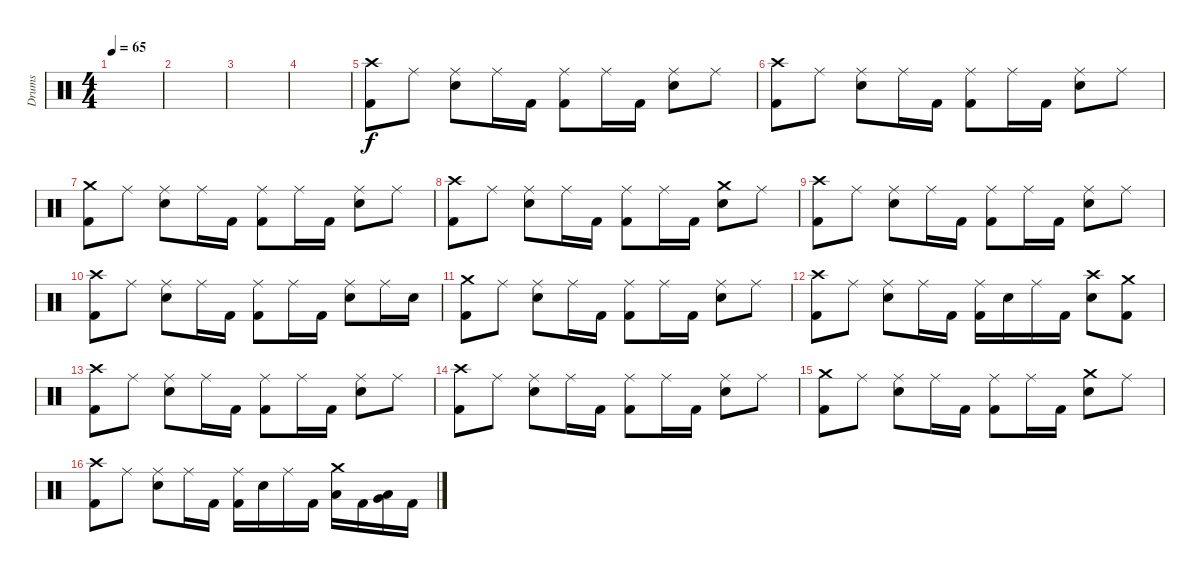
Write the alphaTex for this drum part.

\track ("Drums" "Drums") {instrument percussion}
\staff {score}
\articulation defaults
\ts (4 4)
\tempo 65
\clef neutral
\ks c
|
|
|
|
("Crash high (hit)" "Kick (hit) 2").8 "Ride (middle)".8 ("Ride (middle)" "Snare (hit) 2").8 "Ride (middle)".16 "Kick (hit) 2".16 ("Ride (middle)" "Kick (hit) 2").8 "Ride (middle)".16 "Kick (hit) 2".16 ("Ride (middle)" "Snare (hit) 2").8 "Ride (middle)".8 |
("Crash high (hit)" "Kick (hit) 2").8 "Ride (middle)".8 ("Ride (middle)" "Snare (hit) 2").8 "Ride (middle)".16 "Kick (hit) 2".16 ("Ride (middle)" "Kick (hit) 2").8 "Ride (middle)".16 "Kick (hit) 2".16 ("Ride (middle)" "Snare (hit) 2").8 "Ride (middle)".8 |
("Crash medium (hit)" "Kick (hit) 2").8 "Ride (middle)".8 ("Ride (middle)" "Snare (hit) 2").8 "Ride (middle)".16 "Kick (hit) 2".16 ("Ride (middle)" "Kick (hit) 2").8 "Ride (middle)".16 "Kick (hit) 2".16 ("Ride (middle)" "Snare (hit) 2").8 "Ride (middle)".8 |
("Crash high (hit)" "Kick (hit) 2").8 "Ride (middle)".8 ("Ride (middle)" "Snare (hit) 2").8 "Ride (middle)".16 "Kick (hit) 2".16 ("Ride (middle)" "Kick (hit) 2").8 "Ride (middle)".16 "Kick (hit) 2".16 ("Crash medium (hit)" "Snare (hit) 2").8 "Ride (middle)".8 |
("Crash high (hit)" "Kick (hit) 2").8 "Ride (middle)".8 ("Ride (middle)" "Snare (hit) 2").8 "Ride (middle)".16 "Kick (hit) 2".16 ("Ride (middle)" "Kick (hit) 2").8 "Ride (middle)".16 "Kick (hit) 2".16 ("Ride (middle)" "Snare (hit) 2").8 "Ride (middle)".8 |
("Crash high (hit)" "Kick (hit) 2").8 "Ride (middle)".8 ("Ride (middle)" "Snare (hit) 2").8 "Ride (middle)".16 "Kick (hit) 2".16 ("Ride (middle)" "Kick (hit) 2").8 "Ride (middle)".16 "Kick (hit) 2".16 ("Ride (middle)" "Snare (hit) 2").8 "Ride (middle)".16 "Snare (hit) 2".16 |
("Crash medium (hit)" "Kick (hit) 2").8 "Ride (middle)".8 ("Ride (middle)" "Snare (hit) 2").8 "Ride (middle)".16 "Kick (hit) 2".16 ("Ride (middle)" "Kick (hit) 2").8 "Ride (middle)".16 "Kick (hit) 2".16 ("Ride (middle)" "Snare (hit) 2").8 "Ride (middle)".8 |
("Crash high (hit)" "Kick (hit) 2").8 "Ride (middle)".8 ("Ride (middle)" "Snare (hit) 2").8 "Ride (middle)".16 "Kick (hit) 2".16 ("Ride (middle)" "Kick (hit) 2").16 "Snare (hit) 2".16 "Ride (middle)".16 "Kick (hit) 2".16 ("Crash high (hit)" "Snare (hit) 2").8 ("Crash medium (hit)" "Kick (hit) 2").8 |
("Crash high (hit)" "Kick (hit) 2").8 "Ride (middle)".8 ("Ride (middle)" "Snare (hit) 2").8 "Ride (middle)".16 "Kick (hit) 2".16 ("Ride (middle)" "Kick (hit) 2").8 "Ride (middle)".16 "Kick (hit) 2".16 ("Ride (middle)" "Snare (hit) 2").8 "Ride (middle)".8 |
("Crash high (hit)" "Kick (hit) 2").8 "Ride (middle)".8 ("Ride (middle)" "Snare (hit) 2").8 "Ride (middle)".16 "Kick (hit) 2".16 ("Ride (middle)" "Kick (hit) 2").8 "Ride (middle)".16 "Kick (hit) 2".16 ("Ride (middle)" "Snare (hit) 2").8 "Ride (middle)".8 |
("Crash medium (hit)" "Kick (hit) 2").8 "Ride (middle)".8 ("Ride (middle)" "Snare (hit) 2").8 "Ride (middle)".16 "Kick (hit) 2".16 ("Ride (middle)" "Kick (hit) 2").8 "Ride (middle)".16 "Kick (hit) 2".16 ("Crash medium (hit)" "Snare (hit) 2").8 "Ride (middle)".8 |
("Crash high (hit)" "Kick (hit) 2").8 "Ride (middle)".8 ("Ride (middle)" "Snare (hit) 2").8 "Ride (middle)".16 "Kick (hit) 2".16 ("Ride (middle)" "Kick (hit) 2").16 "Snare (hit) 2".16 "Ride (middle)".16 "Kick (hit) 2".16 ("Crash medium (hit)" "Low Tom (hit)").16 "Kick (hit) 2".16 ("Low Tom (hit)" "Very Low Tom (hit)").16 "Kick (hit) 2".16
